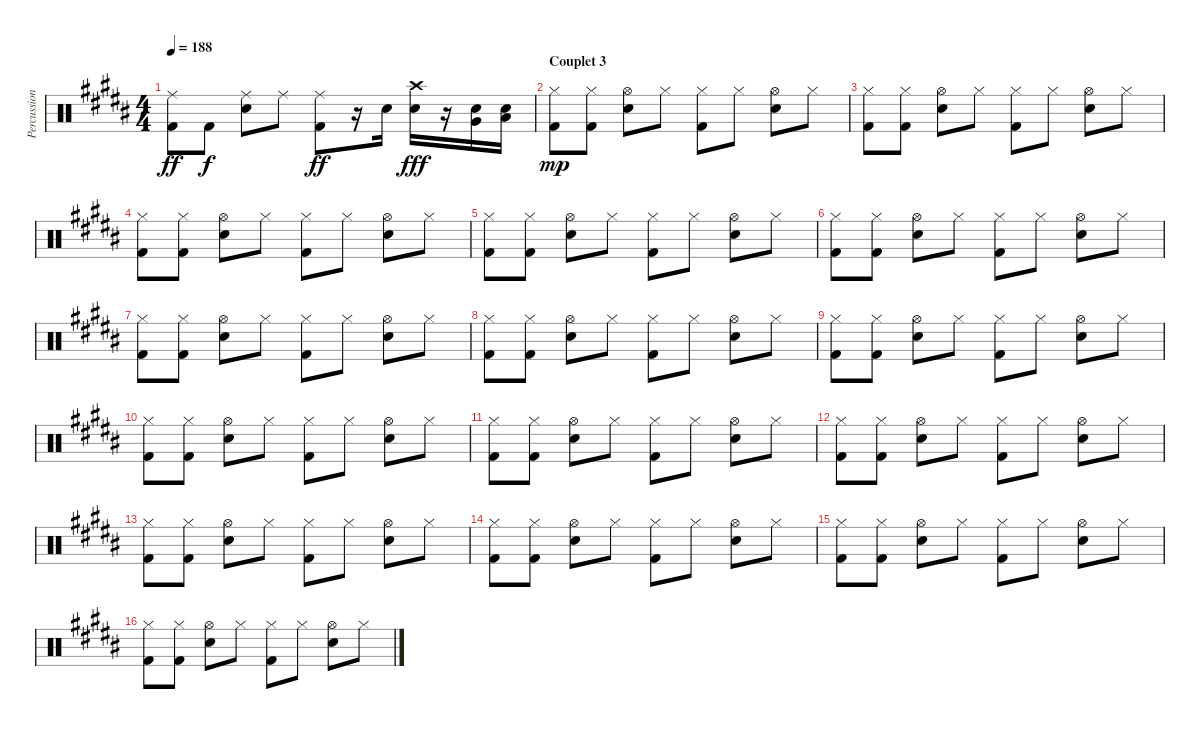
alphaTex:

\track ("Percussions" "Percussion") {instrument percussion}
\staff {score}
\articulation defaults
\ts (4 4)
\tempo 188
\clef neutral
\ks b
("Ride (middle)" "Kick (hit) 2").8{dy ff} "Kick (hit) 2".8{dy f} ("Ride (middle)" "Snare (hit) 2").8 "Ride (middle)".8 ("Ride (middle)" "Kick (hit) 2").8{dy ff} r.16 "Snare (hit) 2".16 ("Crash high (hit)" "Snare (hit) 2").16{dy fff} r.16 ("Very Low Tom (hit)" "Snare (hit) 2").16 ("Low Floor Tom (hit)" "Snare (hit) 2").16 |
\section ("" "Couplet 3")
("Hi-Hat (closed)" "Kick (hit) 2").8{dy mp} ("Hi-Hat (closed)" "Kick (hit) 2").8 ("Hi-Hat (open)" "Snare (hit) 2").8 "Hi-Hat (closed)".8 ("Hi-Hat (closed)" "Kick (hit) 2").8 "Hi-Hat (closed)".8 ("Hi-Hat (open)" "Snare (hit) 2").8 "Hi-Hat (closed)".8 |
("Hi-Hat (closed)" "Kick (hit) 2").8 ("Hi-Hat (closed)" "Kick (hit) 2").8 ("Hi-Hat (open)" "Snare (hit) 2").8 "Hi-Hat (closed)".8 ("Hi-Hat (closed)" "Kick (hit) 2").8 "Hi-Hat (closed)".8 ("Hi-Hat (open)" "Snare (hit) 2").8 "Hi-Hat (closed)".8 |
("Hi-Hat (closed)" "Kick (hit) 2").8 ("Hi-Hat (closed)" "Kick (hit) 2").8 ("Hi-Hat (open)" "Snare (hit) 2").8 "Hi-Hat (closed)".8 ("Hi-Hat (closed)" "Kick (hit) 2").8 "Hi-Hat (closed)".8 ("Hi-Hat (open)" "Snare (hit) 2").8 "Hi-Hat (closed)".8 |
("Hi-Hat (closed)" "Kick (hit) 2").8 ("Hi-Hat (closed)" "Kick (hit) 2").8 ("Hi-Hat (open)" "Snare (hit) 2").8 "Hi-Hat (closed)".8 ("Hi-Hat (closed)" "Kick (hit) 2").8 "Hi-Hat (closed)".8 ("Hi-Hat (open)" "Snare (hit) 2").8 "Hi-Hat (closed)".8 |
("Hi-Hat (closed)" "Kick (hit) 2").8 ("Hi-Hat (closed)" "Kick (hit) 2").8 ("Hi-Hat (open)" "Snare (hit) 2").8 "Hi-Hat (closed)".8 ("Hi-Hat (closed)" "Kick (hit) 2").8 "Hi-Hat (closed)".8 ("Hi-Hat (open)" "Snare (hit) 2").8 "Hi-Hat (closed)".8 |
("Hi-Hat (closed)" "Kick (hit) 2").8 ("Hi-Hat (closed)" "Kick (hit) 2").8 ("Hi-Hat (open)" "Snare (hit) 2").8 "Hi-Hat (closed)".8 ("Hi-Hat (closed)" "Kick (hit) 2").8 "Hi-Hat (closed)".8 ("Hi-Hat (open)" "Snare (hit) 2").8 "Hi-Hat (closed)".8 |
("Hi-Hat (closed)" "Kick (hit) 2").8 ("Hi-Hat (closed)" "Kick (hit) 2").8 ("Hi-Hat (open)" "Snare (hit) 2").8 "Hi-Hat (closed)".8 ("Hi-Hat (closed)" "Kick (hit) 2").8 "Hi-Hat (closed)".8 ("Hi-Hat (open)" "Snare (hit) 2").8 "Hi-Hat (closed)".8 |
("Hi-Hat (closed)" "Kick (hit) 2").8 ("Hi-Hat (closed)" "Kick (hit) 2").8 ("Hi-Hat (open)" "Snare (hit) 2").8 "Hi-Hat (closed)".8 ("Hi-Hat (closed)" "Kick (hit) 2").8 "Hi-Hat (closed)".8 ("Hi-Hat (open)" "Snare (hit) 2").8 "Hi-Hat (closed)".8 |
("Hi-Hat (closed)" "Kick (hit) 2").8 ("Hi-Hat (closed)" "Kick (hit) 2").8 ("Hi-Hat (open)" "Snare (hit) 2").8 "Hi-Hat (closed)".8 ("Hi-Hat (closed)" "Kick (hit) 2").8 "Hi-Hat (closed)".8 ("Hi-Hat (open)" "Snare (hit) 2").8 "Hi-Hat (closed)".8 |
("Hi-Hat (closed)" "Kick (hit) 2").8 ("Hi-Hat (closed)" "Kick (hit) 2").8 ("Hi-Hat (open)" "Snare (hit) 2").8 "Hi-Hat (closed)".8 ("Hi-Hat (closed)" "Kick (hit) 2").8 "Hi-Hat (closed)".8 ("Hi-Hat (open)" "Snare (hit) 2").8 "Hi-Hat (closed)".8 |
("Hi-Hat (closed)" "Kick (hit) 2").8 ("Hi-Hat (closed)" "Kick (hit) 2").8 ("Hi-Hat (open)" "Snare (hit) 2").8 "Hi-Hat (closed)".8 ("Hi-Hat (closed)" "Kick (hit) 2").8 "Hi-Hat (closed)".8 ("Hi-Hat (open)" "Snare (hit) 2").8 "Hi-Hat (closed)".8 |
("Hi-Hat (closed)" "Kick (hit) 2").8 ("Hi-Hat (closed)" "Kick (hit) 2").8 ("Hi-Hat (open)" "Snare (hit) 2").8 "Hi-Hat (closed)".8 ("Hi-Hat (closed)" "Kick (hit) 2").8 "Hi-Hat (closed)".8 ("Hi-Hat (open)" "Snare (hit) 2").8 "Hi-Hat (closed)".8 |
("Hi-Hat (closed)" "Kick (hit) 2").8 ("Hi-Hat (closed)" "Kick (hit) 2").8 ("Hi-Hat (open)" "Snare (hit) 2").8 "Hi-Hat (closed)".8 ("Hi-Hat (closed)" "Kick (hit) 2").8 "Hi-Hat (closed)".8 ("Hi-Hat (open)" "Snare (hit) 2").8 "Hi-Hat (closed)".8 |
("Hi-Hat (closed)" "Kick (hit) 2").8 ("Hi-Hat (closed)" "Kick (hit) 2").8 ("Hi-Hat (open)" "Snare (hit) 2").8 "Hi-Hat (closed)".8 ("Hi-Hat (closed)" "Kick (hit) 2").8 "Hi-Hat (closed)".8 ("Hi-Hat (open)" "Snare (hit) 2").8 "Hi-Hat (closed)".8 |
("Hi-Hat (closed)" "Kick (hit) 2").8 ("Hi-Hat (closed)" "Kick (hit) 2").8 ("Hi-Hat (open)" "Snare (hit) 2").8 "Hi-Hat (closed)".8 ("Hi-Hat (closed)" "Kick (hit) 2").8 "Hi-Hat (closed)".8 ("Hi-Hat (open)" "Snare (hit) 2").8 "Hi-Hat (closed)".8
